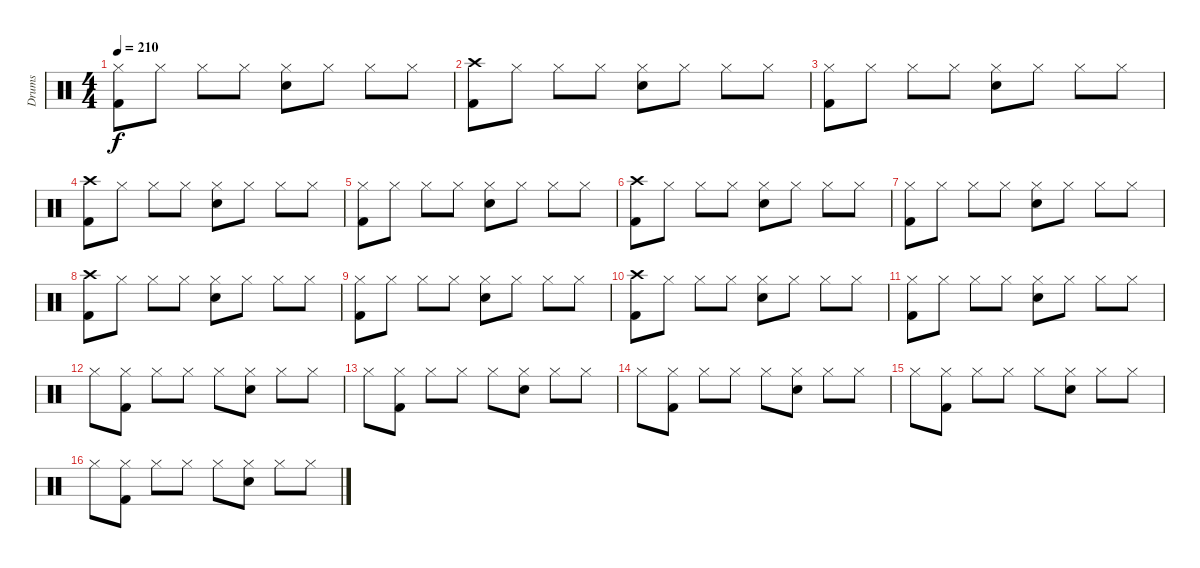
\track ("Drums" "Drums") {instrument percussion}
\staff {score}
\articulation defaults
\ts (4 4)
\tempo 210
\clef neutral
\ks c
("Hi-Hat (closed)" "Kick (hit) 2").8{dy f} "Hi-Hat (closed)".8 "Hi-Hat (closed)".8 "Hi-Hat (closed)".8 ("Hi-Hat (closed)" "Electric Snare (hit)").8 "Hi-Hat (closed)".8 "Hi-Hat (closed)".8 "Hi-Hat (closed)".8 |
("Crash high (hit)" "Kick (hit) 2").8 "Hi-Hat (closed)".8 "Hi-Hat (closed)".8 "Hi-Hat (closed)".8 ("Hi-Hat (closed)" "Electric Snare (hit)").8 "Hi-Hat (closed)".8 "Hi-Hat (closed)".8 "Hi-Hat (closed)".8 |
("Hi-Hat (closed)" "Kick (hit) 2").8 "Hi-Hat (closed)".8 "Hi-Hat (closed)".8 "Hi-Hat (closed)".8 ("Hi-Hat (closed)" "Electric Snare (hit)").8 "Hi-Hat (closed)".8 "Hi-Hat (closed)".8 "Hi-Hat (closed)".8 |
("Crash high (hit)" "Kick (hit) 2").8 "Hi-Hat (closed)".8 "Hi-Hat (closed)".8 "Hi-Hat (closed)".8 ("Hi-Hat (closed)" "Electric Snare (hit)").8 "Hi-Hat (closed)".8 "Hi-Hat (closed)".8 "Hi-Hat (closed)".8 |
("Hi-Hat (closed)" "Kick (hit) 2").8 "Hi-Hat (closed)".8 "Hi-Hat (closed)".8 "Hi-Hat (closed)".8 ("Hi-Hat (closed)" "Electric Snare (hit)").8 "Hi-Hat (closed)".8 "Hi-Hat (closed)".8 "Hi-Hat (closed)".8 |
("Crash high (hit)" "Kick (hit) 2").8 "Hi-Hat (closed)".8 "Hi-Hat (closed)".8 "Hi-Hat (closed)".8 ("Hi-Hat (closed)" "Electric Snare (hit)").8 "Hi-Hat (closed)".8 "Hi-Hat (closed)".8 "Hi-Hat (closed)".8 |
("Hi-Hat (closed)" "Kick (hit) 2").8 "Hi-Hat (closed)".8 "Hi-Hat (closed)".8 "Hi-Hat (closed)".8 ("Hi-Hat (closed)" "Electric Snare (hit)").8 "Hi-Hat (closed)".8 "Hi-Hat (closed)".8 "Hi-Hat (closed)".8 |
("Crash high (hit)" "Kick (hit) 2").8 "Hi-Hat (closed)".8 "Hi-Hat (closed)".8 "Hi-Hat (closed)".8 ("Hi-Hat (closed)" "Electric Snare (hit)").8 "Hi-Hat (closed)".8 "Hi-Hat (closed)".8 "Hi-Hat (closed)".8 |
("Hi-Hat (closed)" "Kick (hit) 2").8 "Hi-Hat (closed)".8 "Hi-Hat (closed)".8 "Hi-Hat (closed)".8 ("Hi-Hat (closed)" "Electric Snare (hit)").8 "Hi-Hat (closed)".8 "Hi-Hat (closed)".8 "Hi-Hat (closed)".8 |
("Crash high (hit)" "Kick (hit) 2").8 "Hi-Hat (closed)".8 "Hi-Hat (closed)".8 "Hi-Hat (closed)".8 ("Hi-Hat (closed)" "Electric Snare (hit)").8 "Hi-Hat (closed)".8 "Hi-Hat (closed)".8 "Hi-Hat (closed)".8 |
("Hi-Hat (closed)" "Kick (hit) 2").8 "Hi-Hat (closed)".8 "Hi-Hat (closed)".8 "Hi-Hat (closed)".8 ("Hi-Hat (closed)" "Electric Snare (hit)").8 "Hi-Hat (closed)".8 "Hi-Hat (closed)".8 "Hi-Hat (closed)".8 |
"Hi-Hat (closed)".8 ("Hi-Hat (closed)" "Kick (hit) 2").8 "Hi-Hat (closed)".8 "Hi-Hat (closed)".8 "Hi-Hat (closed)".8 ("Hi-Hat (closed)" "Electric Snare (hit)").8 "Hi-Hat (closed)".8 "Hi-Hat (closed)".8 |
"Hi-Hat (closed)".8 ("Hi-Hat (closed)" "Kick (hit) 2").8 "Hi-Hat (closed)".8 "Hi-Hat (closed)".8 "Hi-Hat (closed)".8 ("Hi-Hat (closed)" "Electric Snare (hit)").8 "Hi-Hat (closed)".8 "Hi-Hat (closed)".8 |
"Hi-Hat (closed)".8 ("Hi-Hat (closed)" "Kick (hit) 2").8 "Hi-Hat (closed)".8 "Hi-Hat (closed)".8 "Hi-Hat (closed)".8 ("Hi-Hat (closed)" "Electric Snare (hit)").8 "Hi-Hat (closed)".8 "Hi-Hat (closed)".8 |
"Hi-Hat (closed)".8 ("Hi-Hat (closed)" "Kick (hit) 2").8 "Hi-Hat (closed)".8 "Hi-Hat (closed)".8 "Hi-Hat (closed)".8 ("Hi-Hat (closed)" "Electric Snare (hit)").8 "Hi-Hat (closed)".8 "Hi-Hat (closed)".8 |
"Hi-Hat (closed)".8 ("Hi-Hat (closed)" "Kick (hit) 2").8 "Hi-Hat (closed)".8 "Hi-Hat (closed)".8 "Hi-Hat (closed)".8 ("Hi-Hat (closed)" "Electric Snare (hit)").8 "Hi-Hat (closed)".8 "Hi-Hat (closed)".8
